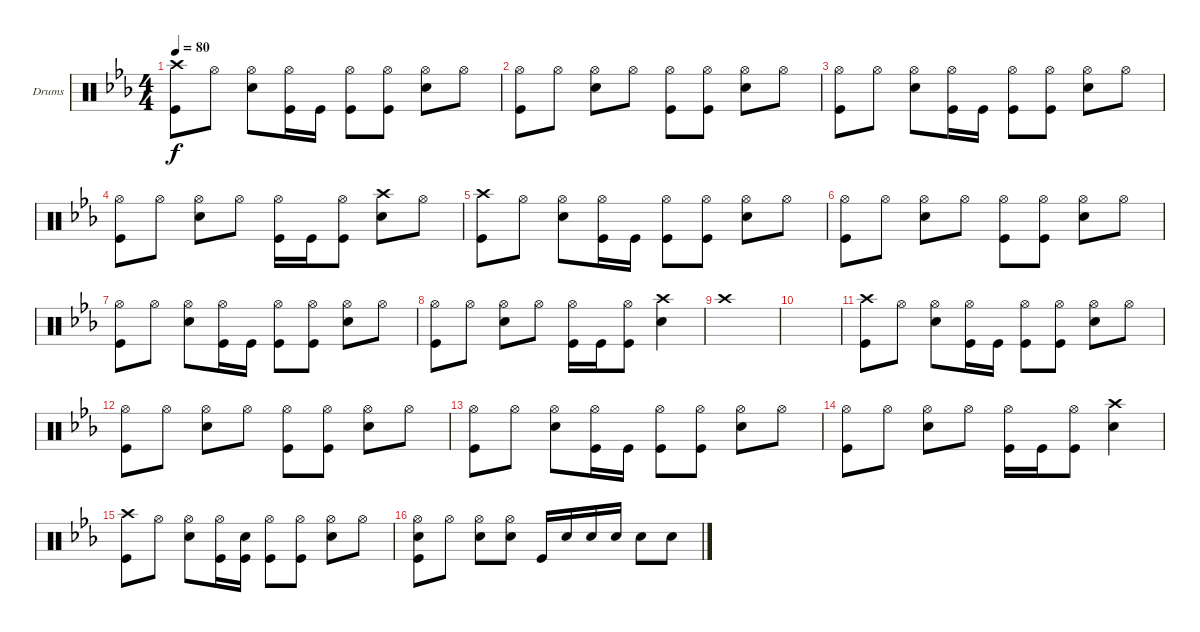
\defaultSystemsLayout 4
\bracketExtendMode groupsimilarinstruments
\firstSystemTrackNameOrientation horizontal
\otherSystemsTrackNameOrientation horizontal
\track ("Drumkit" "Drums") {instrument percussion}
\staff {score}
\articulation defaults
\ts (4 4)
\tempo 80
\clef neutral
\ks cminor
("Crash high (hit)" "Kick (hit)").8{dy f} "Hi-Hat (open)".8 ("Hi-Hat (open)" "Snare (hit) 2").8 ("Hi-Hat (open)" "Kick (hit)").16 "Kick (hit)".16 ("Hi-Hat (open)" "Kick (hit)").8 ("Hi-Hat (open)" "Kick (hit)").8 ("Hi-Hat (open)" "Snare (hit) 2").8 "Hi-Hat (open)".8 |
("Kick (hit)" "Hi-Hat (open)").8 "Hi-Hat (open)".8 ("Hi-Hat (open)" "Snare (hit) 2").8 "Hi-Hat (open)".8 ("Hi-Hat (open)" "Kick (hit)").8 ("Hi-Hat (open)" "Kick (hit)").8 ("Hi-Hat (open)" "Snare (hit) 2").8 "Hi-Hat (open)".8 |
("Kick (hit)" "Hi-Hat (open)").8 "Hi-Hat (open)".8 ("Hi-Hat (open)" "Snare (hit) 2").8 ("Hi-Hat (open)" "Kick (hit)").16 "Kick (hit)".16 ("Hi-Hat (open)" "Kick (hit)").8 ("Hi-Hat (open)" "Kick (hit)").8 ("Hi-Hat (open)" "Snare (hit) 2").8 "Hi-Hat (open)".8 |
("Kick (hit)" "Hi-Hat (open)").8 "Hi-Hat (open)".8 ("Hi-Hat (open)" "Snare (hit) 2").8 "Hi-Hat (open)".8 ("Kick (hit)" "Hi-Hat (open)").16 "Kick (hit)".16 ("Hi-Hat (open)" "Kick (hit)").8 ("Snare (hit) 2" "Crash high (hit)").8 "Hi-Hat (open)".8 |
("Crash high (hit)" "Kick (hit)").8 "Hi-Hat (open)".8 ("Hi-Hat (open)" "Snare (hit) 2").8 ("Hi-Hat (open)" "Kick (hit)").16 "Kick (hit)".16 ("Hi-Hat (open)" "Kick (hit)").8 ("Hi-Hat (open)" "Kick (hit)").8 ("Hi-Hat (open)" "Snare (hit) 2").8 "Hi-Hat (open)".8 |
("Kick (hit)" "Hi-Hat (open)").8 "Hi-Hat (open)".8 ("Hi-Hat (open)" "Snare (hit) 2").8 "Hi-Hat (open)".8 ("Hi-Hat (open)" "Kick (hit)").8 ("Hi-Hat (open)" "Kick (hit)").8 ("Hi-Hat (open)" "Snare (hit) 2").8 "Hi-Hat (open)".8 |
("Kick (hit)" "Hi-Hat (open)").8 "Hi-Hat (open)".8 ("Hi-Hat (open)" "Snare (hit) 2").8 ("Hi-Hat (open)" "Kick (hit)").16 "Kick (hit)".16 ("Hi-Hat (open)" "Kick (hit)").8 ("Hi-Hat (open)" "Kick (hit)").8 ("Hi-Hat (open)" "Snare (hit) 2").8 "Hi-Hat (open)".8 |
("Kick (hit)" "Hi-Hat (open)").8 "Hi-Hat (open)".8 ("Hi-Hat (open)" "Snare (hit) 2").8 "Hi-Hat (open)".8 ("Kick (hit)" "Hi-Hat (open)").16 "Kick (hit)".16 ("Hi-Hat (open)" "Kick (hit)").8 ("Snare (hit) 2" "Crash high (hit)").4 |
"Crash high (hit)".1 |
|
("Crash high (hit)" "Kick (hit)").8 "Hi-Hat (open)".8 ("Hi-Hat (open)" "Snare (hit) 2").8 ("Hi-Hat (open)" "Kick (hit)").16 "Kick (hit)".16 ("Hi-Hat (open)" "Kick (hit)").8 ("Hi-Hat (open)" "Kick (hit)").8 ("Hi-Hat (open)" "Snare (hit) 2").8 "Hi-Hat (open)".8 |
("Kick (hit)" "Hi-Hat (open)").8 "Hi-Hat (open)".8 ("Hi-Hat (open)" "Snare (hit) 2").8 "Hi-Hat (open)".8 ("Hi-Hat (open)" "Kick (hit)").8 ("Hi-Hat (open)" "Kick (hit)").8 ("Hi-Hat (open)" "Snare (hit) 2").8 "Hi-Hat (open)".8 |
("Kick (hit)" "Hi-Hat (open)").8 "Hi-Hat (open)".8 ("Hi-Hat (open)" "Snare (hit) 2").8 ("Hi-Hat (open)" "Kick (hit)").16 "Kick (hit)".16 ("Hi-Hat (open)" "Kick (hit)").8 ("Hi-Hat (open)" "Kick (hit)").8 ("Hi-Hat (open)" "Snare (hit) 2").8 "Hi-Hat (open)".8 |
("Kick (hit)" "Hi-Hat (open)").8 "Hi-Hat (open)".8 ("Hi-Hat (open)" "Snare (hit) 2").8 "Hi-Hat (open)".8 ("Kick (hit)" "Hi-Hat (open)").16 "Kick (hit)".16 ("Hi-Hat (open)" "Kick (hit)").8 ("Snare (hit) 2" "Crash high (hit)").4 |
("Kick (hit)" "Crash high (hit)").8 "Hi-Hat (open)".8 ("Hi-Hat (open)" "Snare (hit) 2").8 ("Hi-Hat (open)" "Kick (hit)").16 ("Kick (hit)" "Snare (hit) 2").16 ("Hi-Hat (open)" "Kick (hit)").8 ("Hi-Hat (open)" "Kick (hit)").8 ("Hi-Hat (open)" "Snare (hit) 2").8 "Hi-Hat (open)".8 |
("Kick (hit)" "Hi-Hat (open)" "Snare (hit) 2").8 "Hi-Hat (open)".8 ("Hi-Hat (open)" "Snare (hit) 2").8 ("Hi-Hat (open)" "Snare (hit) 2").8 "Kick (hit)".16 "Snare (hit) 2".16 "Snare (hit) 2".16 "Snare (hit) 2".16 "Snare (hit) 2".8 "Snare (hit) 2".8
